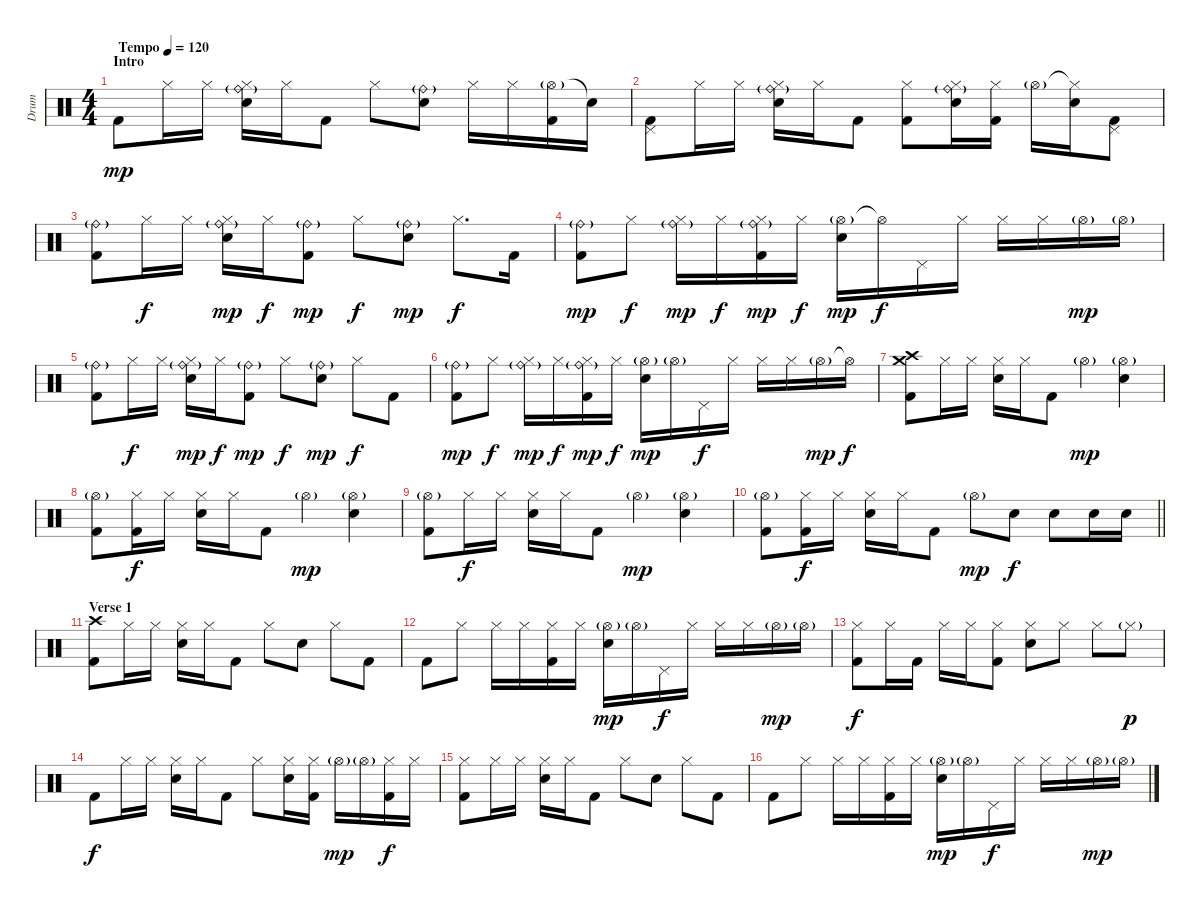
\track ("Drum" "Drum") {instrument percussion}
\staff {score}
\articulation defaults
\ts (4 4)
\section ("" "Intro")
\tempo (120 "Tempo")
\clef neutral
\ks c "Kick (hit) 2".8{dy mp} "Hi-Hat (closed)".16 "Hi-Hat (closed)".16
("Hi-Hat (closed)" "Ride (bell)"{g} "Snare (hit) 2").16 "Hi-Hat (closed)".16 "Kick (hit) 2".8 "Hi-Hat (closed)".8 ("Ride (bell)"{g} "Snare (hit) 2").8 "Hi-Hat (closed)".16 "Hi-Hat (closed)".16 ("Hi-Hat (open)"{g} "Kick (hit) 2").16 "Snare (hit)"{t}.16 |
("Pedal Hi-Hat (hit)" "Kick (hit) 2").8 "Hi-Hat (closed)".16 "Hi-Hat (closed)".16 ("Hi-Hat (closed)" "Ride (bell)"{g} "Snare (hit) 2").16 "Hi-Hat (closed)".16 "Kick (hit) 2".8 ("Hi-Hat (closed)" "Kick (hit) 2").8 ("Hi-Hat (closed)" "Ride (bell)"{g} "Snare (hit) 2").16 ("Hi-Hat (closed)" "Kick (hit) 2").16 "Hi-Hat (open)"{g}.16 ("Hi-Hat (closed)"{t} "Snare (hit) 2").16 ("Pedal Hi-Hat (hit)" "Kick (hit) 2").8 |
("Ride (bell)"{g} "Kick (hit) 2").8 "Hi-Hat (closed)".16{dy f} "Hi-Hat (closed)".16 ("Hi-Hat (closed)" "Ride (bell)"{g} "Snare (hit) 2").16{dy mp} "Hi-Hat (closed)".16{dy f} ("Ride (bell)"{g} "Kick (hit) 2").8{dy mp} "Hi-Hat (closed)".8{dy f} ("Ride (bell)"{g} "Snare (hit) 2").8{dy mp} "Hi-Hat (closed)".8{d dy f} "Kick (hit) 2".16 |
("Ride (bell)"{g} "Kick (hit) 2").8{dy mp} "Hi-Hat (closed)".8{dy f} ("Hi-Hat (closed)" "Ride (bell)"{g}).16{dy mp} "Hi-Hat (closed)".16{dy f} ("Hi-Hat (closed)" "Ride (bell)"{g} "Kick (hit) 2").16{dy mp} "Hi-Hat (closed)".16{dy f} ("Hi-Hat (open)"{g} "Snare (hit) 2").16{dy mp} "Hi-Hat (open)"{t}.16{dy f} "Pedal Hi-Hat (hit)".16 "Hi-Hat (closed)".16 "Hi-Hat (closed)".16 "Hi-Hat (closed)".16 "Hi-Hat (open)"{g}.16{dy mp} "Hi-Hat (open)"{g}.16 |
("Ride (bell)"{g} "Kick (hit) 2").8 "Hi-Hat (closed)".16{dy f} "Hi-Hat (closed)".16 ("Hi-Hat (closed)" "Ride (bell)"{g} "Snare (hit) 2").16{dy mp} "Hi-Hat (closed)".16{dy f} ("Ride (bell)"{g} "Kick (hit) 2").8{dy mp} "Hi-Hat (closed)".8{dy f} ("Ride (bell)"{g} "Snare (hit) 2").8{dy mp} "Hi-Hat (closed)".8{dy f} "Kick (hit) 2".8 |
("Ride (bell)"{g} "Kick (hit) 2").8{dy mp} "Hi-Hat (closed)".8{dy f} ("Hi-Hat (closed)" "Ride (bell)"{g}).16{dy mp} "Hi-Hat (closed)".16{dy f} ("Hi-Hat (closed)" "Ride (bell)"{g} "Kick (hit) 2").16{dy mp} "Hi-Hat (closed)".16{dy f} ("Hi-Hat (open)"{g} "Snare (hit) 2").16{dy mp} "Hi-Hat (open)"{g}.16 "Pedal Hi-Hat (hit)".16{dy f} "Hi-Hat (closed)".16 "Hi-Hat (closed)".16 "Hi-Hat (closed)".16 "Hi-Hat (open)"{g}.16{dy mp} "Hi-Hat (open)"{t}.16{dy f} |
("Crash medium (hit)" "Crash high (hit)" "Kick (hit) 2").8 "Hi-Hat (closed)".16 "Hi-Hat (closed)".16 ("Hi-Hat (closed)" "Electric Snare (hit)").16 "Hi-Hat (closed)".16 "Kick (hit) 2".8 "Hi-Hat (open)"{g}.4{dy mp} ("Hi-Hat (open)"{g} "Electric Snare (hit)").4 |
("Hi-Hat (open)"{g} "Kick (hit) 2").8 ("Hi-Hat (closed)" "Kick (hit) 2").16{dy f} "Hi-Hat (closed)".16 ("Hi-Hat (closed)" "Electric Snare (hit)").16 "Hi-Hat (closed)".16 "Kick (hit) 2".8 "Hi-Hat (open)"{g}.4{dy mp} ("Hi-Hat (open)"{g} "Electric Snare (hit)").4 |
("Hi-Hat (open)"{g} "Kick (hit) 2").8 "Hi-Hat (closed)".16{dy f} "Hi-Hat (closed)".16 ("Hi-Hat (closed)" "Electric Snare (hit)").16 "Hi-Hat (closed)".16 "Kick (hit) 2".8 "Hi-Hat (open)"{g}.4{dy mp} ("Hi-Hat (open)"{g} "Electric Snare (hit)").4 |
\barLineRight lightlight
("Hi-Hat (open)"{g} "Kick (hit) 2").8 ("Hi-Hat (closed)" "Kick (hit) 2").16{dy f} "Hi-Hat (closed)".16 ("Hi-Hat (closed)" "Electric Snare (hit)").16 "Hi-Hat (closed)".16 "Kick (hit) 2".8 "Hi-Hat (open)"{g}.8{dy mp} "Electric Snare (hit)".8{dy f} "Electric Snare (hit)".8 "Electric Snare (hit)".16 "Electric Snare (hit)".16 |
\section ("" "Verse 1")
("Crash high (hit)" "Kick (hit) 2").8 "Hi-Hat (closed)".16 "Hi-Hat (closed)".16 ("Hi-Hat (closed)" "Electric Snare (hit)").16 "Hi-Hat (closed)".16 "Kick (hit) 2".8 "Hi-Hat (closed)".8 "Electric Snare (hit)".8 "Hi-Hat (closed)".8 "Kick (hit) 2".8 |
"Kick (hit) 2".8 "Hi-Hat (closed)".8 "Hi-Hat (closed)".16 "Hi-Hat (closed)".16 ("Hi-Hat (closed)" "Kick (hit) 2").16 "Hi-Hat (closed)".16 ("Hi-Hat (open)"{g} "Electric Snare (hit)").16{dy mp} "Hi-Hat (open)"{g}.16 "Pedal Hi-Hat (hit)".16{dy f} "Hi-Hat (closed)".16 "Hi-Hat (closed)".16 "Hi-Hat (closed)".16 "Hi-Hat (open)"{g}.16{dy mp} "Hi-Hat (open)"{g}.16 |
("Hi-Hat (closed)" "Kick (hit) 2").8{dy f} "Hi-Hat (closed)".16 "Kick (hit) 2".16 "Hi-Hat (closed)".16 "Hi-Hat (closed)".16 ("Hi-Hat (closed)" "Kick (hit) 2").8 ("Hi-Hat (closed)" "Electric Snare (hit)").8 "Hi-Hat (closed)".8 "Hi-Hat (closed)".8 "Hi-Hat (closed)"{g}.8{dy p} |
"Kick (hit) 2".8{dy f} "Hi-Hat (closed)".16 "Hi-Hat (closed)".16 ("Hi-Hat (closed)" "Electric Snare (hit)").16 "Hi-Hat (closed)".16 "Kick (hit) 2".8 "Hi-Hat (closed)".8 ("Hi-Hat (closed)" "Electric Snare (hit)").16 ("Hi-Hat (closed)" "Kick (hit) 2").16 "Hi-Hat (open)"{g}.16{dy mp} "Hi-Hat (open)"{g}.16 ("Hi-Hat (closed)" "Kick (hit) 2").16{dy f} "Hi-Hat (closed)".16 |
("Hi-Hat (closed)" "Kick (hit) 2").8 "Hi-Hat (closed)".16 "Hi-Hat (closed)".16 ("Hi-Hat (closed)" "Electric Snare (hit)").16 "Hi-Hat (closed)".16 "Kick (hit) 2".8 "Hi-Hat (closed)".8 "Electric Snare (hit)".8 "Hi-Hat (closed)".8 "Kick (hit) 2".8 |
"Kick (hit) 2".8 "Hi-Hat (closed)".8 "Hi-Hat (closed)".16 "Hi-Hat (closed)".16 ("Hi-Hat (closed)" "Kick (hit) 2").16 "Hi-Hat (closed)".16 ("Hi-Hat (open)"{g} "Electric Snare (hit)").16{dy mp} "Hi-Hat (open)"{g}.16 "Pedal Hi-Hat (hit)".16{dy f} "Hi-Hat (closed)".16 "Hi-Hat (closed)".16 "Hi-Hat (closed)".16 "Hi-Hat (open)"{g}.16{dy mp} "Hi-Hat (open)"{g}.16
